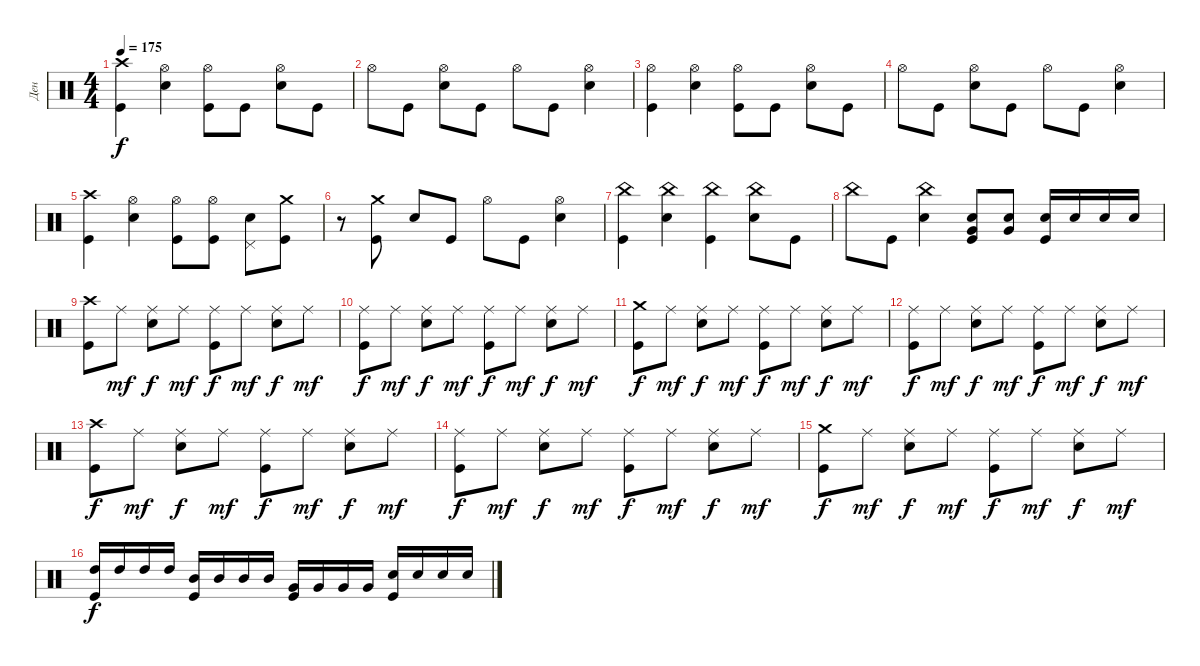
\track ("Ден" "Ден") {instrument percussion}
\staff {score}
\articulation defaults
\ts (4 4)
\tempo 175
\clef neutral
\ks c
("Crash high (hit)" "Kick (hit)").4{dy f} ("Hi-Hat (open)" "Snare (hit) 2").4 ("Hi-Hat (open)" "Kick (hit)").8 "Kick (hit)".8 ("Hi-Hat (open)" "Snare (hit) 2").8 "Kick (hit)".8 |
"Hi-Hat (open)".8 "Kick (hit)".8 ("Hi-Hat (open)" "Snare (hit) 2").8 "Kick (hit)".8 "Hi-Hat (open)".8 "Kick (hit)".8 ("Hi-Hat (open)" "Snare (hit) 2").4 |
("Hi-Hat (open)" "Kick (hit)").4 ("Hi-Hat (open)" "Snare (hit) 2").4 ("Hi-Hat (open)" "Kick (hit)").8 "Kick (hit)".8 ("Hi-Hat (open)" "Snare (hit) 2").8 "Kick (hit)".8 |
"Hi-Hat (open)".8 "Kick (hit)".8 ("Hi-Hat (open)" "Snare (hit) 2").8 "Kick (hit)".8 "Hi-Hat (open)".8 "Kick (hit)".8 ("Hi-Hat (open)" "Snare (hit) 2").4 |
("Crash high (hit)" "Kick (hit)").4 ("Hi-Hat (open)" "Snare (hit) 2").4 ("Hi-Hat (open)" "Kick (hit)").8 ("Hi-Hat (open)" "Kick (hit)").8 ("Pedal Hi-Hat (hit)" "Snare (hit) 2").8 ("Crash medium (hit)" "Kick (hit)").8 |
r.8 ("Crash medium (hit)" "Kick (hit)").8 "Snare (hit) 2".8 "Kick (hit)".8 "Hi-Hat (open)".8 "Kick (hit)".8 ("Hi-Hat (open)" "Snare (hit) 2").4 |
("China (hit)" "Kick (hit)").4 ("China (hit)" "Snare (hit) 2").4 ("China (hit)" "Kick (hit)").4 ("China (hit)" "Snare (hit) 2").8 "Kick (hit)".8 |
"China (hit)".8 "Kick (hit)".8 ("China (hit)" "Snare (hit) 2").4 ("Snare (hit) 2" "Very Low Tom (hit)" "Kick (hit)").8 ("Snare (hit) 2" "Very Low Tom (hit)").8 ("Snare (hit) 2" "Kick (hit)").16 "Snare (hit) 2".16 "Snare (hit) 2".16 "Snare (hit) 2".16 |
("Crash high (hit)" "Kick (hit)").8 "Ride (middle)".8{dy mf} ("Ride (middle)" "Snare (hit) 2").8{dy f} "Ride (middle)".8{dy mf} ("Ride (middle)" "Kick (hit)").8{dy f} "Ride (middle)".8{dy mf} ("Ride (middle)" "Snare (hit) 2").8{dy f} "Ride (middle)".8{dy mf} |
("Ride (middle)" "Kick (hit)").8{dy f} "Ride (middle)".8{dy mf} ("Ride (middle)" "Snare (hit) 2").8{dy f} "Ride (middle)".8{dy mf} ("Ride (middle)" "Kick (hit)").8{dy f} "Ride (middle)".8{dy mf} ("Ride (middle)" "Snare (hit) 2").8{dy f} "Ride (middle)".8{dy mf} |
("Crash medium (hit)" "Kick (hit)").8{dy f} "Ride (middle)".8{dy mf} ("Ride (middle)" "Snare (hit) 2").8{dy f} "Ride (middle)".8{dy mf} ("Ride (middle)" "Kick (hit)").8{dy f} "Ride (middle)".8{dy mf} ("Ride (middle)" "Snare (hit) 2").8{dy f} "Ride (middle)".8{dy mf} |
("Ride (middle)" "Kick (hit)").8{dy f} "Ride (middle)".8{dy mf} ("Ride (middle)" "Snare (hit) 2").8{dy f} "Ride (middle)".8{dy mf} ("Ride (middle)" "Kick (hit)").8{dy f} "Ride (middle)".8{dy mf} ("Ride (middle)" "Snare (hit) 2").8{dy f} "Ride (middle)".8{dy mf} |
("Crash high (hit)" "Kick (hit)").8{dy f} "Ride (middle)".8{dy mf} ("Ride (middle)" "Snare (hit) 2").8{dy f} "Ride (middle)".8{dy mf} ("Ride (middle)" "Kick (hit)").8{dy f} "Ride (middle)".8{dy mf} ("Ride (middle)" "Snare (hit) 2").8{dy f} "Ride (middle)".8{dy mf} |
("Ride (middle)" "Kick (hit)").8{dy f} "Ride (middle)".8{dy mf} ("Ride (middle)" "Snare (hit) 2").8{dy f} "Ride (middle)".8{dy mf} ("Ride (middle)" "Kick (hit)").8{dy f} "Ride (middle)".8{dy mf} ("Ride (middle)" "Snare (hit) 2").8{dy f} "Ride (middle)".8{dy mf} |
("Crash medium (hit)" "Kick (hit)").8{dy f} "Ride (middle)".8{dy mf} ("Ride (middle)" "Snare (hit) 2").8{dy f} "Ride (middle)".8{dy mf} ("Ride (middle)" "Kick (hit)").8{dy f} "Ride (middle)".8{dy mf} ("Ride (middle)" "Snare (hit) 2").8{dy f} "Ride (middle)".8{dy mf} |
("High Tom (hit)" "Kick (hit)").16{dy f} "High Tom (hit)".16 "High Tom (hit)".16 "High Tom (hit)".16 ("Mid Tom (hit)" "Kick (hit)").16 "Mid Tom (hit)".16 "Mid Tom (hit)".16 "Mid Tom (hit)".16 ("Very Low Tom (hit)" "Kick (hit)").16 "Very Low Tom (hit)".16 "Very Low Tom (hit)".16 "Very Low Tom (hit)".16 ("Snare (hit) 2" "Kick (hit)").16 "Snare (hit) 2".16 "Snare (hit) 2".16 "Snare (hit) 2".16
